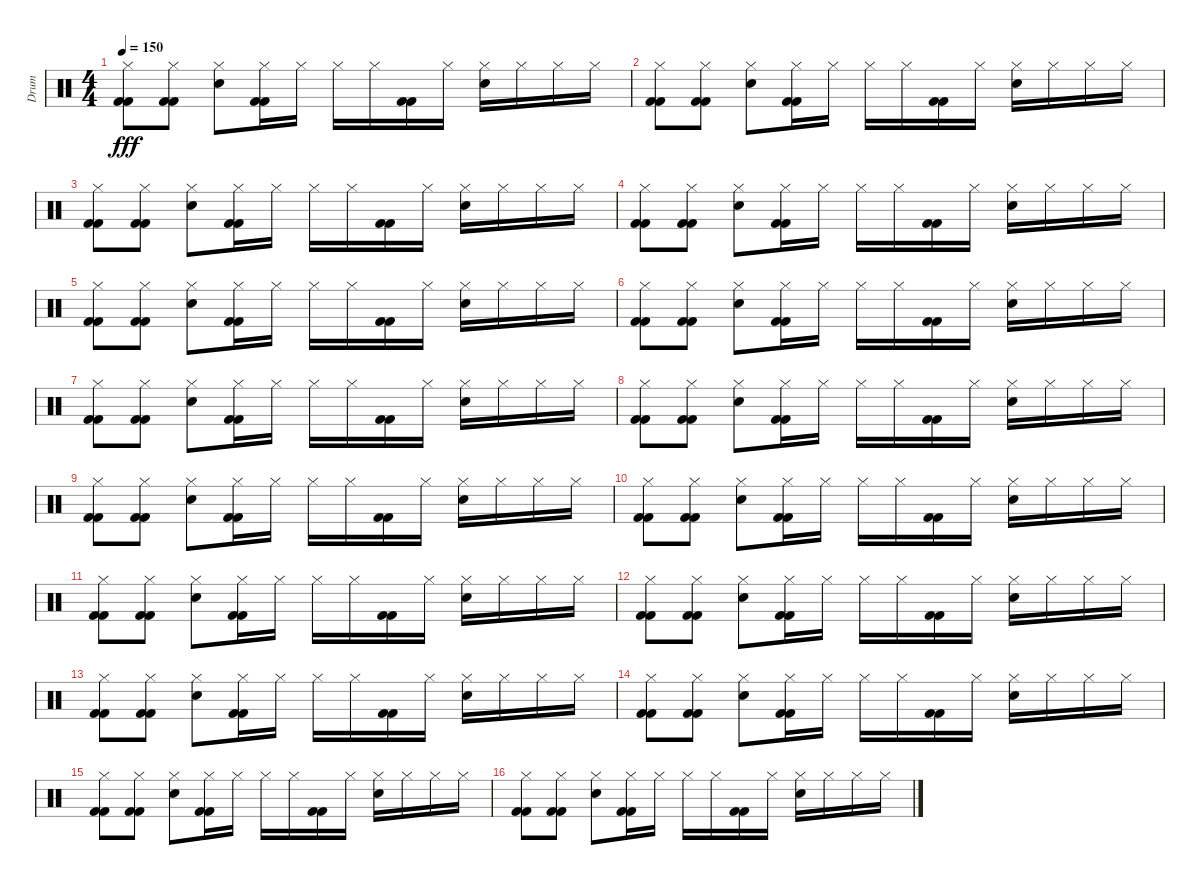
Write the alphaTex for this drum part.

\track ("Drum" "Drum") {instrument percussion}
\staff {score}
\articulation defaults
\ts (4 4)
\tempo 150
\clef neutral
\ks c
("Hi-Hat (closed)" "Kick (hit) 2" "Kick (hit) 2").8{dy fff} ("Hi-Hat (closed)" "Kick (hit) 2" "Kick (hit) 2").8 ("Hi-Hat (closed)" "Electric Snare (hit)").8 ("Hi-Hat (closed)" "Kick (hit) 2" "Kick (hit) 2").16 "Hi-Hat (closed)".16 "Hi-Hat (closed)".16 "Hi-Hat (closed)".16 ("Kick (hit) 2" "Kick (hit) 2").16 "Hi-Hat (closed)".16 ("Hi-Hat (closed)" "Electric Snare (hit)").16 "Hi-Hat (closed)".16 "Hi-Hat (closed)".16 "Hi-Hat (closed)".16 |
("Hi-Hat (closed)" "Kick (hit) 2" "Kick (hit) 2").8 ("Hi-Hat (closed)" "Kick (hit) 2" "Kick (hit) 2").8 ("Hi-Hat (closed)" "Electric Snare (hit)").8 ("Hi-Hat (closed)" "Kick (hit) 2" "Kick (hit) 2").16 "Hi-Hat (closed)".16 "Hi-Hat (closed)".16 "Hi-Hat (closed)".16 ("Kick (hit) 2" "Kick (hit) 2").16 "Hi-Hat (closed)".16 ("Hi-Hat (closed)" "Electric Snare (hit)").16 "Hi-Hat (closed)".16 "Hi-Hat (closed)".16 "Hi-Hat (closed)".16 |
("Hi-Hat (closed)" "Kick (hit) 2" "Kick (hit) 2").8 ("Hi-Hat (closed)" "Kick (hit) 2" "Kick (hit) 2").8 ("Hi-Hat (closed)" "Electric Snare (hit)").8 ("Hi-Hat (closed)" "Kick (hit) 2" "Kick (hit) 2").16 "Hi-Hat (closed)".16 "Hi-Hat (closed)".16 "Hi-Hat (closed)".16 ("Kick (hit) 2" "Kick (hit) 2").16 "Hi-Hat (closed)".16 ("Hi-Hat (closed)" "Electric Snare (hit)").16 "Hi-Hat (closed)".16 "Hi-Hat (closed)".16 "Hi-Hat (closed)".16 |
("Hi-Hat (closed)" "Kick (hit) 2" "Kick (hit) 2").8 ("Hi-Hat (closed)" "Kick (hit) 2" "Kick (hit) 2").8 ("Hi-Hat (closed)" "Electric Snare (hit)").8 ("Hi-Hat (closed)" "Kick (hit) 2" "Kick (hit) 2").16 "Hi-Hat (closed)".16 "Hi-Hat (closed)".16 "Hi-Hat (closed)".16 ("Kick (hit) 2" "Kick (hit) 2").16 "Hi-Hat (closed)".16 ("Hi-Hat (closed)" "Electric Snare (hit)").16 "Hi-Hat (closed)".16 "Hi-Hat (closed)".16 "Hi-Hat (closed)".16 |
("Hi-Hat (closed)" "Kick (hit) 2" "Kick (hit) 2").8 ("Hi-Hat (closed)" "Kick (hit) 2" "Kick (hit) 2").8 ("Hi-Hat (closed)" "Electric Snare (hit)").8 ("Hi-Hat (closed)" "Kick (hit) 2" "Kick (hit) 2").16 "Hi-Hat (closed)".16 "Hi-Hat (closed)".16 "Hi-Hat (closed)".16 ("Kick (hit) 2" "Kick (hit) 2").16 "Hi-Hat (closed)".16 ("Hi-Hat (closed)" "Electric Snare (hit)").16 "Hi-Hat (closed)".16 "Hi-Hat (closed)".16 "Hi-Hat (closed)".16 |
("Hi-Hat (closed)" "Kick (hit) 2" "Kick (hit) 2").8 ("Hi-Hat (closed)" "Kick (hit) 2" "Kick (hit) 2").8 ("Hi-Hat (closed)" "Electric Snare (hit)").8 ("Hi-Hat (closed)" "Kick (hit) 2" "Kick (hit) 2").16 "Hi-Hat (closed)".16 "Hi-Hat (closed)".16 "Hi-Hat (closed)".16 ("Kick (hit) 2" "Kick (hit) 2").16 "Hi-Hat (closed)".16 ("Hi-Hat (closed)" "Electric Snare (hit)").16 "Hi-Hat (closed)".16 "Hi-Hat (closed)".16 "Hi-Hat (closed)".16 |
("Hi-Hat (closed)" "Kick (hit) 2" "Kick (hit) 2").8 ("Hi-Hat (closed)" "Kick (hit) 2" "Kick (hit) 2").8 ("Hi-Hat (closed)" "Electric Snare (hit)").8 ("Hi-Hat (closed)" "Kick (hit) 2" "Kick (hit) 2").16 "Hi-Hat (closed)".16 "Hi-Hat (closed)".16 "Hi-Hat (closed)".16 ("Kick (hit) 2" "Kick (hit) 2").16 "Hi-Hat (closed)".16 ("Hi-Hat (closed)" "Electric Snare (hit)").16 "Hi-Hat (closed)".16 "Hi-Hat (closed)".16 "Hi-Hat (closed)".16 |
("Hi-Hat (closed)" "Kick (hit) 2" "Kick (hit) 2").8 ("Hi-Hat (closed)" "Kick (hit) 2" "Kick (hit) 2").8 ("Hi-Hat (closed)" "Electric Snare (hit)").8 ("Hi-Hat (closed)" "Kick (hit) 2" "Kick (hit) 2").16 "Hi-Hat (closed)".16 "Hi-Hat (closed)".16 "Hi-Hat (closed)".16 ("Kick (hit) 2" "Kick (hit) 2").16 "Hi-Hat (closed)".16 ("Hi-Hat (closed)" "Electric Snare (hit)").16 "Hi-Hat (closed)".16 "Hi-Hat (closed)".16 "Hi-Hat (closed)".16 |
("Hi-Hat (closed)" "Kick (hit) 2" "Kick (hit) 2").8 ("Hi-Hat (closed)" "Kick (hit) 2" "Kick (hit) 2").8 ("Hi-Hat (closed)" "Electric Snare (hit)").8 ("Hi-Hat (closed)" "Kick (hit) 2" "Kick (hit) 2").16 "Hi-Hat (closed)".16 "Hi-Hat (closed)".16 "Hi-Hat (closed)".16 ("Kick (hit) 2" "Kick (hit) 2").16 "Hi-Hat (closed)".16 ("Hi-Hat (closed)" "Electric Snare (hit)").16 "Hi-Hat (closed)".16 "Hi-Hat (closed)".16 "Hi-Hat (closed)".16 |
("Hi-Hat (closed)" "Kick (hit) 2" "Kick (hit) 2").8 ("Hi-Hat (closed)" "Kick (hit) 2" "Kick (hit) 2").8 ("Hi-Hat (closed)" "Electric Snare (hit)").8 ("Hi-Hat (closed)" "Kick (hit) 2" "Kick (hit) 2").16 "Hi-Hat (closed)".16 "Hi-Hat (closed)".16 "Hi-Hat (closed)".16 ("Kick (hit) 2" "Kick (hit) 2").16 "Hi-Hat (closed)".16 ("Hi-Hat (closed)" "Electric Snare (hit)").16 "Hi-Hat (closed)".16 "Hi-Hat (closed)".16 "Hi-Hat (closed)".16 |
("Hi-Hat (closed)" "Kick (hit) 2" "Kick (hit) 2").8 ("Hi-Hat (closed)" "Kick (hit) 2" "Kick (hit) 2").8 ("Hi-Hat (closed)" "Electric Snare (hit)").8 ("Hi-Hat (closed)" "Kick (hit) 2" "Kick (hit) 2").16 "Hi-Hat (closed)".16 "Hi-Hat (closed)".16 "Hi-Hat (closed)".16 ("Kick (hit) 2" "Kick (hit) 2").16 "Hi-Hat (closed)".16 ("Hi-Hat (closed)" "Electric Snare (hit)").16 "Hi-Hat (closed)".16 "Hi-Hat (closed)".16 "Hi-Hat (closed)".16 |
("Hi-Hat (closed)" "Kick (hit) 2" "Kick (hit) 2").8 ("Hi-Hat (closed)" "Kick (hit) 2" "Kick (hit) 2").8 ("Hi-Hat (closed)" "Electric Snare (hit)").8 ("Hi-Hat (closed)" "Kick (hit) 2" "Kick (hit) 2").16 "Hi-Hat (closed)".16 "Hi-Hat (closed)".16 "Hi-Hat (closed)".16 ("Kick (hit) 2" "Kick (hit) 2").16 "Hi-Hat (closed)".16 ("Hi-Hat (closed)" "Electric Snare (hit)").16 "Hi-Hat (closed)".16 "Hi-Hat (closed)".16 "Hi-Hat (closed)".16 |
("Hi-Hat (closed)" "Kick (hit) 2" "Kick (hit) 2").8 ("Hi-Hat (closed)" "Kick (hit) 2" "Kick (hit) 2").8 ("Hi-Hat (closed)" "Electric Snare (hit)").8 ("Hi-Hat (closed)" "Kick (hit) 2" "Kick (hit) 2").16 "Hi-Hat (closed)".16 "Hi-Hat (closed)".16 "Hi-Hat (closed)".16 ("Kick (hit) 2" "Kick (hit) 2").16 "Hi-Hat (closed)".16 ("Hi-Hat (closed)" "Electric Snare (hit)").16 "Hi-Hat (closed)".16 "Hi-Hat (closed)".16 "Hi-Hat (closed)".16 |
("Hi-Hat (closed)" "Kick (hit) 2" "Kick (hit) 2").8 ("Hi-Hat (closed)" "Kick (hit) 2" "Kick (hit) 2").8 ("Hi-Hat (closed)" "Electric Snare (hit)").8 ("Hi-Hat (closed)" "Kick (hit) 2" "Kick (hit) 2").16 "Hi-Hat (closed)".16 "Hi-Hat (closed)".16 "Hi-Hat (closed)".16 ("Kick (hit) 2" "Kick (hit) 2").16 "Hi-Hat (closed)".16 ("Hi-Hat (closed)" "Electric Snare (hit)").16 "Hi-Hat (closed)".16 "Hi-Hat (closed)".16 "Hi-Hat (closed)".16 |
("Hi-Hat (closed)" "Kick (hit) 2" "Kick (hit) 2").8 ("Hi-Hat (closed)" "Kick (hit) 2" "Kick (hit) 2").8 ("Hi-Hat (closed)" "Electric Snare (hit)").8 ("Hi-Hat (closed)" "Kick (hit) 2" "Kick (hit) 2").16 "Hi-Hat (closed)".16 "Hi-Hat (closed)".16 "Hi-Hat (closed)".16 ("Kick (hit) 2" "Kick (hit) 2").16 "Hi-Hat (closed)".16 ("Hi-Hat (closed)" "Electric Snare (hit)").16 "Hi-Hat (closed)".16 "Hi-Hat (closed)".16 "Hi-Hat (closed)".16 |
("Hi-Hat (closed)" "Kick (hit) 2" "Kick (hit) 2").8 ("Hi-Hat (closed)" "Kick (hit) 2" "Kick (hit) 2").8 ("Hi-Hat (closed)" "Electric Snare (hit)").8 ("Hi-Hat (closed)" "Kick (hit) 2" "Kick (hit) 2").16 "Hi-Hat (closed)".16 "Hi-Hat (closed)".16 "Hi-Hat (closed)".16 ("Kick (hit) 2" "Kick (hit) 2").16 "Hi-Hat (closed)".16 ("Hi-Hat (closed)" "Electric Snare (hit)").16 "Hi-Hat (closed)".16 "Hi-Hat (closed)".16 "Hi-Hat (closed)".16
